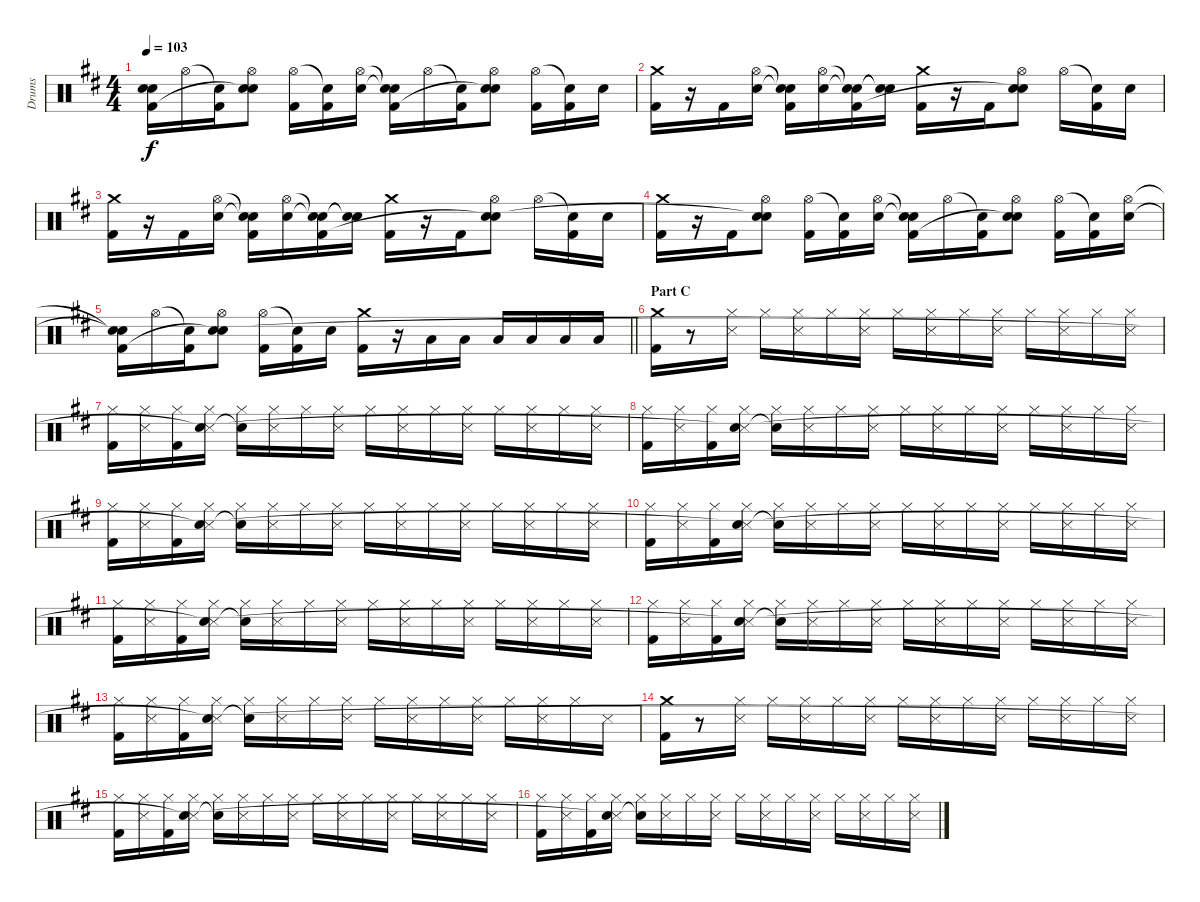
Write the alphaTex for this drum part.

\track ("Drums" "Drums") {instrument percussion}
\staff {score}
\articulation defaults
\ts (4 4)
\tempo 103
\clef neutral
\ks d
("Snare (hit)"{t} "Snare (hit)"{t} "Kick (hit) 2").16{dy f} "Hi-Hat (open)".16 ("Snare (hit)"{t} "Kick (hit) 2").16 ("Hi-Hat (open)" "Electric Snare (hit)" "Snare (hit)"{t}).8 ("Hi-Hat (open)" "Kick (hit) 2").16 ("Snare (hit)"{t} "Kick (hit) 2").16 ("Hi-Hat (open)" "Electric Snare (hit)").16 ("Snare (hit)"{t} "Snare (hit)"{t} "Kick (hit) 2").16 "Hi-Hat (open)".16 ("Snare (hit)"{t} "Kick (hit) 2").16 ("Hi-Hat (open)" "Electric Snare (hit)" "Snare (hit)"{t}).8 ("Hi-Hat (open)" "Kick (hit) 2").16 ("Snare (hit)"{t} "Kick (hit) 2").16 "Electric Snare (hit)".16 |
("Crash medium (hit)" "Kick (hit) 2").16 r.16 "Kick (hit) 2".16 ("Hi-Hat (open)" "Electric Snare (hit)").16 ("Snare (hit)"{t} "Snare (hit)"{t} "Kick (hit) 2").16 ("Hi-Hat (open)" "Electric Snare (hit)").16 ("Snare (hit)"{t} "Snare (hit)"{t} "Kick (hit) 2").16 ("Snare (hit)"{t} "Snare (hit)"{t}).16 ("Crash medium (hit)" "Kick (hit) 2").16 r.16 "Kick (hit) 2".16 ("Hi-Hat (open)" "Electric Snare (hit)" "Snare (hit)"{t}).8 "Hi-Hat (open)".16 ("Snare (hit)"{t} "Kick (hit) 2").16 "Electric Snare (hit)".16 |
("Crash medium (hit)" "Kick (hit) 2").16 r.16 "Kick (hit) 2".16 ("Hi-Hat (open)" "Electric Snare (hit)").16 ("Snare (hit)"{t} "Snare (hit)"{t} "Kick (hit) 2").16 ("Hi-Hat (open)" "Electric Snare (hit)").16 ("Snare (hit)"{t} "Snare (hit)"{t} "Kick (hit) 2").16 ("Snare (hit)"{t} "Snare (hit)"{t}).16 ("Crash medium (hit)" "Kick (hit) 2").16 r.16 "Kick (hit) 2".16 ("Hi-Hat (open)" "Electric Snare (hit)" "Snare (hit)"{t}).8 "Hi-Hat (open)".16 ("Snare (hit)"{t} "Kick (hit) 2").16 "Electric Snare (hit)".16 |
("Crash medium (hit)" "Kick (hit) 2").16 r.16 "Kick (hit) 2".16 ("Hi-Hat (open)" "Electric Snare (hit)" "Snare (hit)"{t}).8 ("Hi-Hat (open)" "Kick (hit) 2").16 ("Snare (hit)"{t} "Kick (hit) 2").16 ("Hi-Hat (open)" "Electric Snare (hit)").16 ("Snare (hit)"{t} "Snare (hit)"{t} "Kick (hit) 2").16 "Hi-Hat (open)".16 ("Snare (hit)"{t} "Kick (hit) 2").16 ("Hi-Hat (open)" "Electric Snare (hit)" "Snare (hit)"{t}).8 ("Hi-Hat (open)" "Kick (hit) 2").16 ("Snare (hit)"{t} "Kick (hit) 2").16 ("Hi-Hat (open)" "Electric Snare (hit)").16 |
\barLineRight lightlight
("Snare (hit)"{t} "Snare (hit)"{t} "Kick (hit) 2").16 "Hi-Hat (open)".16 ("Snare (hit)"{t} "Kick (hit) 2").16 ("Hi-Hat (open)" "Electric Snare (hit)" "Snare (hit)"{t}).8 ("Hi-Hat (open)" "Kick (hit) 2").16 ("Snare (hit)"{t} "Kick (hit) 2").16 "Electric Snare (hit)".16 ("Crash medium (hit)" "Kick (hit) 2").16 r.16 "Low Tom (hit)".16 "Low Tom (hit)".16 "Low Tom (hit)".16 "Low Tom (hit)".16 "Low Tom (hit)".16 "Low Tom (hit)".16 |
\section ("" "Part C")
("Crash medium (hit)" "Kick (hit) 2").16 r.8 ("Hi-Hat (closed)" "Snare (side stick) 3").16 "Hi-Hat (closed)".16 ("Hi-Hat (closed)" "Snare (side stick) 3").16 "Hi-Hat (closed)".16 ("Hi-Hat (closed)" "Snare (side stick) 3").16 "Hi-Hat (closed)".16 ("Hi-Hat (closed)" "Snare (side stick) 3").16 "Hi-Hat (closed)".16 ("Hi-Hat (closed)" "Snare (side stick) 3").16 "Hi-Hat (closed)".16 ("Hi-Hat (closed)" "Snare (side stick) 3").16 "Hi-Hat (closed)".16 ("Hi-Hat (closed)" "Snare (side stick) 3").16 |
("Hi-Hat (closed)" "Kick (hit) 2").16 ("Hi-Hat (closed)" "Snare (side stick) 3").16 ("Hi-Hat (closed)" "Kick (hit) 2").16 ("Hi-Hat (closed)" "Snare (side stick) 3" "Snare (hit)"{t}).16 ("Hi-Hat (closed)" "Snare (hit)"{t}).16 ("Hi-Hat (closed)" "Snare (side stick) 3").16 "Hi-Hat (closed)".16 ("Hi-Hat (closed)" "Snare (side stick) 3").16 "Hi-Hat (closed)".16 ("Hi-Hat (closed)" "Snare (side stick) 3").16 "Hi-Hat (closed)".16 ("Hi-Hat (closed)" "Snare (side stick) 3").16 "Hi-Hat (closed)".16 ("Hi-Hat (closed)" "Snare (side stick) 3").16 "Hi-Hat (closed)".16 ("Hi-Hat (closed)" "Snare (side stick) 3").16 |
("Hi-Hat (closed)" "Kick (hit) 2").16 ("Hi-Hat (closed)" "Snare (side stick) 3").16 ("Hi-Hat (closed)" "Kick (hit) 2").16 ("Hi-Hat (closed)" "Snare (side stick) 3" "Snare (hit)"{t}).16 ("Hi-Hat (closed)" "Snare (hit)"{t}).16 ("Hi-Hat (closed)" "Snare (side stick) 3").16 "Hi-Hat (closed)".16 ("Hi-Hat (closed)" "Snare (side stick) 3").16 "Hi-Hat (closed)".16 ("Hi-Hat (closed)" "Snare (side stick) 3").16 "Hi-Hat (closed)".16 ("Hi-Hat (closed)" "Snare (side stick) 3").16 "Hi-Hat (closed)".16 ("Hi-Hat (closed)" "Snare (side stick) 3").16 "Hi-Hat (closed)".16 ("Hi-Hat (closed)" "Snare (side stick) 3").16 |
("Hi-Hat (closed)" "Kick (hit) 2").16 ("Hi-Hat (closed)" "Snare (side stick) 3").16 ("Hi-Hat (closed)" "Kick (hit) 2").16 ("Hi-Hat (closed)" "Snare (side stick) 3" "Snare (hit)"{t}).16 ("Hi-Hat (closed)" "Snare (hit)"{t}).16 ("Hi-Hat (closed)" "Snare (side stick) 3").16 "Hi-Hat (closed)".16 ("Hi-Hat (closed)" "Snare (side stick) 3").16 "Hi-Hat (closed)".16 ("Hi-Hat (closed)" "Snare (side stick) 3").16 "Hi-Hat (closed)".16 ("Hi-Hat (closed)" "Snare (side stick) 3").16 "Hi-Hat (closed)".16 ("Hi-Hat (closed)" "Snare (side stick) 3").16 "Hi-Hat (closed)".16 ("Hi-Hat (closed)" "Snare (side stick) 3").16 |
("Hi-Hat (closed)" "Kick (hit) 2").16 ("Hi-Hat (closed)" "Snare (side stick) 3").16 ("Hi-Hat (closed)" "Kick (hit) 2").16 ("Hi-Hat (closed)" "Snare (side stick) 3" "Snare (hit)"{t}).16 ("Hi-Hat (closed)" "Snare (hit)"{t}).16 ("Hi-Hat (closed)" "Snare (side stick) 3").16 "Hi-Hat (closed)".16 ("Hi-Hat (closed)" "Snare (side stick) 3").16 "Hi-Hat (closed)".16 ("Hi-Hat (closed)" "Snare (side stick) 3").16 "Hi-Hat (closed)".16 ("Hi-Hat (closed)" "Snare (side stick) 3").16 "Hi-Hat (closed)".16 ("Hi-Hat (closed)" "Snare (side stick) 3").16 "Hi-Hat (closed)".16 ("Hi-Hat (closed)" "Snare (side stick) 3").16 |
("Hi-Hat (closed)" "Kick (hit) 2").16 ("Hi-Hat (closed)" "Snare (side stick) 3").16 ("Hi-Hat (closed)" "Kick (hit) 2").16 ("Hi-Hat (closed)" "Snare (side stick) 3" "Snare (hit)"{t}).16 ("Hi-Hat (closed)" "Snare (hit)"{t}).16 ("Hi-Hat (closed)" "Snare (side stick) 3").16 "Hi-Hat (closed)".16 ("Hi-Hat (closed)" "Snare (side stick) 3").16 "Hi-Hat (closed)".16 ("Hi-Hat (closed)" "Snare (side stick) 3").16 "Hi-Hat (closed)".16 ("Hi-Hat (closed)" "Snare (side stick) 3").16 "Hi-Hat (closed)".16 ("Hi-Hat (closed)" "Snare (side stick) 3").16 "Hi-Hat (closed)".16 ("Hi-Hat (closed)" "Snare (side stick) 3").16 |
("Hi-Hat (closed)" "Kick (hit) 2").16 ("Hi-Hat (closed)" "Snare (side stick) 3").16 ("Hi-Hat (closed)" "Kick (hit) 2").16 ("Hi-Hat (closed)" "Snare (side stick) 3" "Snare (hit)"{t}).16 ("Hi-Hat (closed)" "Snare (hit)"{t}).16 ("Hi-Hat (closed)" "Snare (side stick) 3").16 "Hi-Hat (closed)".16 ("Hi-Hat (closed)" "Snare (side stick) 3").16 "Hi-Hat (closed)".16 ("Hi-Hat (closed)" "Snare (side stick) 3").16 "Hi-Hat (closed)".16 ("Hi-Hat (closed)" "Snare (side stick) 3").16 "Hi-Hat (closed)".16 ("Hi-Hat (closed)" "Snare (side stick) 3").16 "Hi-Hat (closed)".16 ("Hi-Hat (closed)" "Snare (side stick) 3").16 |
("Hi-Hat (closed)" "Kick (hit) 2").16 ("Hi-Hat (closed)" "Snare (side stick) 3").16 ("Hi-Hat (closed)" "Kick (hit) 2").16 ("Hi-Hat (closed)" "Snare (side stick) 3" "Snare (hit)"{t}).16 ("Hi-Hat (closed)" "Snare (hit)"{t}).16 ("Hi-Hat (closed)" "Snare (side stick) 3").16 "Hi-Hat (closed)".16 ("Hi-Hat (closed)" "Snare (side stick) 3").16 "Hi-Hat (closed)".16 ("Hi-Hat (closed)" "Snare (side stick) 3").16 "Hi-Hat (closed)".16 ("Hi-Hat (closed)" "Snare (side stick) 3").16 "Hi-Hat (closed)".16 ("Hi-Hat (closed)" "Snare (side stick) 3").16 "Hi-Hat (closed)".16 "Snare (side stick) 3".16 |
("Crash medium (hit)" "Kick (hit) 2").16 r.8 ("Hi-Hat (closed)" "Snare (side stick) 3").16 "Hi-Hat (closed)".16 ("Hi-Hat (closed)" "Snare (side stick) 3").16 "Hi-Hat (closed)".16 ("Hi-Hat (closed)" "Snare (side stick) 3").16 "Hi-Hat (closed)".16 ("Hi-Hat (closed)" "Snare (side stick) 3").16 "Hi-Hat (closed)".16 ("Hi-Hat (closed)" "Snare (side stick) 3").16 "Hi-Hat (closed)".16 ("Hi-Hat (closed)" "Snare (side stick) 3").16 "Hi-Hat (closed)".16 ("Hi-Hat (closed)" "Snare (side stick) 3").16 |
("Hi-Hat (closed)" "Kick (hit) 2").16 ("Hi-Hat (closed)" "Snare (side stick) 3").16 ("Hi-Hat (closed)" "Kick (hit) 2").16 ("Hi-Hat (closed)" "Snare (side stick) 3" "Snare (hit)"{t}).16 ("Hi-Hat (closed)" "Snare (hit)"{t}).16 ("Hi-Hat (closed)" "Snare (side stick) 3").16 "Hi-Hat (closed)".16 ("Hi-Hat (closed)" "Snare (side stick) 3").16 "Hi-Hat (closed)".16 ("Hi-Hat (closed)" "Snare (side stick) 3").16 "Hi-Hat (closed)".16 ("Hi-Hat (closed)" "Snare (side stick) 3").16 "Hi-Hat (closed)".16 ("Hi-Hat (closed)" "Snare (side stick) 3").16 "Hi-Hat (closed)".16 ("Hi-Hat (closed)" "Snare (side stick) 3").16 |
("Hi-Hat (closed)" "Kick (hit) 2").16 ("Hi-Hat (closed)" "Snare (side stick) 3").16 ("Hi-Hat (closed)" "Kick (hit) 2").16 ("Hi-Hat (closed)" "Snare (side stick) 3" "Snare (hit)"{t}).16 ("Hi-Hat (closed)" "Snare (hit)"{t}).16 ("Hi-Hat (closed)" "Snare (side stick) 3").16 "Hi-Hat (closed)".16 ("Hi-Hat (closed)" "Snare (side stick) 3").16 "Hi-Hat (closed)".16 ("Hi-Hat (closed)" "Snare (side stick) 3").16 "Hi-Hat (closed)".16 ("Hi-Hat (closed)" "Snare (side stick) 3").16 "Hi-Hat (closed)".16 ("Hi-Hat (closed)" "Snare (side stick) 3").16 "Hi-Hat (closed)".16 ("Hi-Hat (closed)" "Snare (side stick) 3").16
